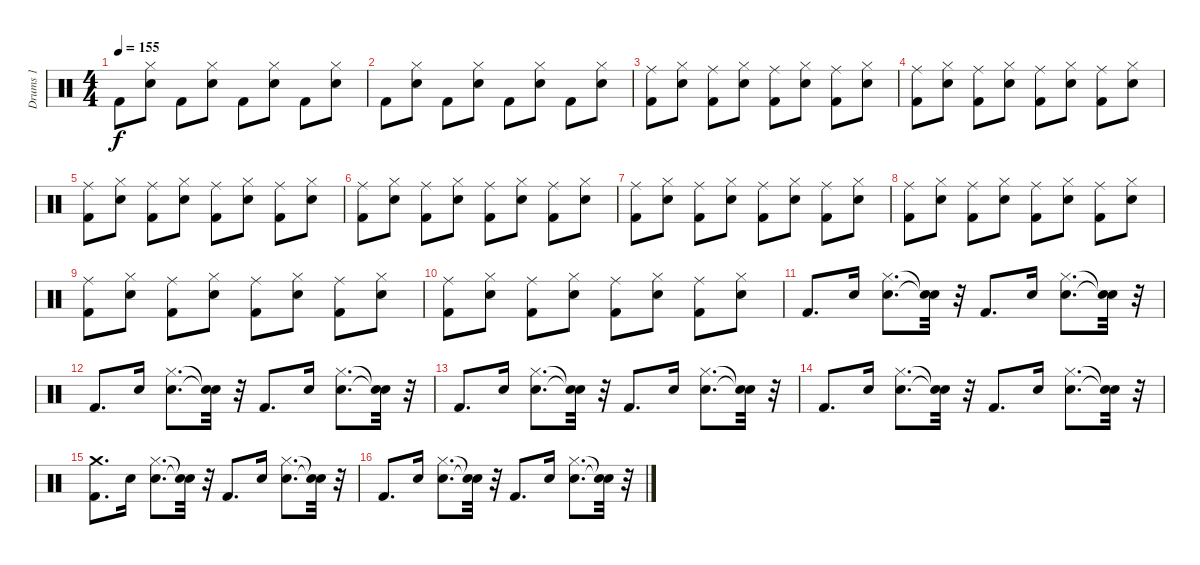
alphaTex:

\track ("Drums 1" "Drums 1") {instrument percussion}
\staff {score}
\articulation defaults
\ts (4 4)
\tempo 155
\clef neutral
\ks c "Kick (hit) 2".8{dy f}
("Snare (hit) 2" "Hi-Hat (closed)").8 "Kick (hit) 2".8 ("Snare (hit) 2" "Hi-Hat (closed)").8 "Kick (hit) 2".8 ("Snare (hit) 2" "Hi-Hat (closed)").8 "Kick (hit) 2".8 ("Snare (hit) 2" "Hi-Hat (closed)").8 |
"Kick (hit) 2".8 ("Snare (hit) 2" "Hi-Hat (closed)").8 "Kick (hit) 2".8 ("Snare (hit) 2" "Hi-Hat (closed)").8 "Kick (hit) 2".8 ("Snare (hit) 2" "Hi-Hat (closed)").8 "Kick (hit) 2".8 ("Snare (hit) 2" "Hi-Hat (closed)").8 |
("Kick (hit) 2" "Ride (middle)").8 ("Snare (hit) 2" "Hi-Hat (closed)").8 ("Kick (hit) 2" "Ride (middle)").8 ("Snare (hit) 2" "Hi-Hat (closed)").8 ("Kick (hit) 2" "Ride (middle)").8 ("Snare (hit) 2" "Hi-Hat (closed)").8 ("Kick (hit) 2" "Ride (middle)").8 ("Snare (hit) 2" "Hi-Hat (closed)").8 |
("Kick (hit) 2" "Ride (middle)").8 ("Snare (hit) 2" "Hi-Hat (closed)").8 ("Kick (hit) 2" "Ride (middle)").8 ("Snare (hit) 2" "Hi-Hat (closed)").8 ("Kick (hit) 2" "Ride (middle)").8 ("Snare (hit) 2" "Hi-Hat (closed)").8 ("Kick (hit) 2" "Ride (middle)").8 ("Snare (hit) 2" "Hi-Hat (closed)").8 |
("Kick (hit) 2" "Ride (middle)").8 ("Snare (hit) 2" "Hi-Hat (closed)").8 ("Kick (hit) 2" "Ride (middle)").8 ("Snare (hit) 2" "Hi-Hat (closed)").8 ("Kick (hit) 2" "Ride (middle)").8 ("Snare (hit) 2" "Hi-Hat (closed)").8 ("Kick (hit) 2" "Ride (middle)").8 ("Snare (hit) 2" "Hi-Hat (closed)").8 |
("Kick (hit) 2" "Ride (middle)").8 ("Snare (hit) 2" "Hi-Hat (closed)").8 ("Kick (hit) 2" "Ride (middle)").8 ("Snare (hit) 2" "Hi-Hat (closed)").8 ("Kick (hit) 2" "Ride (middle)").8 ("Snare (hit) 2" "Hi-Hat (closed)").8 ("Kick (hit) 2" "Ride (middle)").8 ("Snare (hit) 2" "Hi-Hat (closed)").8 |
("Kick (hit) 2" "Ride (middle)").8 ("Snare (hit) 2" "Hi-Hat (closed)").8 ("Kick (hit) 2" "Ride (middle)").8 ("Snare (hit) 2" "Hi-Hat (closed)").8 ("Kick (hit) 2" "Ride (middle)").8 ("Snare (hit) 2" "Hi-Hat (closed)").8 ("Kick (hit) 2" "Ride (middle)").8 ("Snare (hit) 2" "Hi-Hat (closed)").8 |
("Kick (hit) 2" "Ride (middle)").8 ("Snare (hit) 2" "Hi-Hat (closed)").8 ("Kick (hit) 2" "Ride (middle)").8 ("Snare (hit) 2" "Hi-Hat (closed)").8 ("Kick (hit) 2" "Ride (middle)").8 ("Snare (hit) 2" "Hi-Hat (closed)").8 ("Kick (hit) 2" "Ride (middle)").8 ("Snare (hit) 2" "Hi-Hat (closed)").8 |
("Kick (hit) 2" "Ride (middle)").8 ("Snare (hit) 2" "Hi-Hat (closed)").8 ("Kick (hit) 2" "Ride (middle)").8 ("Snare (hit) 2" "Hi-Hat (closed)").8 ("Kick (hit) 2" "Ride (middle)").8 ("Snare (hit) 2" "Hi-Hat (closed)").8 ("Kick (hit) 2" "Ride (middle)").8 ("Snare (hit) 2" "Hi-Hat (closed)").8 |
("Kick (hit) 2" "Ride (middle)").8 ("Snare (hit) 2" "Hi-Hat (closed)").8 ("Kick (hit) 2" "Ride (middle)").8 ("Snare (hit) 2" "Hi-Hat (closed)").8 ("Kick (hit) 2" "Ride (middle)").8 ("Snare (hit) 2" "Hi-Hat (closed)").8 ("Kick (hit) 2" "Ride (middle)").8 ("Snare (hit) 2" "Hi-Hat (closed)").8 |
"Kick (hit) 2".8{d} "Snare (hit) 2".16 ("Snare (hit) 2" "Hi-Hat (closed)").8{d} ("Snare (hit)"{t} "Snare (hit)"{t}).32 r.32 "Kick (hit) 2".8{d} "Snare (hit) 2".16 ("Snare (hit) 2" "Hi-Hat (closed)").8{d} ("Snare (hit)"{t} "Snare (hit)"{t}).32 r.32 |
"Kick (hit) 2".8{d} "Snare (hit) 2".16 ("Snare (hit) 2" "Hi-Hat (closed)").8{d} ("Snare (hit)"{t} "Snare (hit)"{t}).32 r.32 "Kick (hit) 2".8{d} "Snare (hit) 2".16 ("Snare (hit) 2" "Hi-Hat (closed)").8{d} ("Snare (hit)"{t} "Snare (hit)"{t}).32 r.32 |
"Kick (hit) 2".8{d} "Snare (hit) 2".16 ("Snare (hit) 2" "Hi-Hat (closed)").8{d} ("Snare (hit)"{t} "Snare (hit)"{t}).32 r.32 "Kick (hit) 2".8{d} "Snare (hit) 2".16 ("Snare (hit) 2" "Hi-Hat (closed)").8{d} ("Snare (hit)"{t} "Snare (hit)"{t}).32 r.32 |
"Kick (hit) 2".8{d} "Snare (hit) 2".16 ("Snare (hit) 2" "Hi-Hat (closed)").8{d} ("Snare (hit)"{t} "Snare (hit)"{t}).32 r.32 "Kick (hit) 2".8{d} "Snare (hit) 2".16 ("Snare (hit) 2" "Hi-Hat (closed)").8{d} ("Snare (hit)"{t} "Snare (hit)"{t}).32 r.32 |
("Kick (hit) 2" "Crash medium (hit)").8{d} "Snare (hit) 2".16 ("Snare (hit) 2" "Hi-Hat (closed)").8{d} ("Snare (hit)"{t} "Snare (hit)"{t}).32 r.32 "Kick (hit) 2".8{d} "Snare (hit) 2".16 ("Snare (hit) 2" "Hi-Hat (closed)").8{d} ("Snare (hit)"{t} "Snare (hit)"{t}).32 r.32 |
"Kick (hit) 2".8{d} "Snare (hit) 2".16 ("Snare (hit) 2" "Hi-Hat (closed)").8{d} ("Snare (hit)"{t} "Snare (hit)"{t}).32 r.32 "Kick (hit) 2".8{d} "Snare (hit) 2".16 ("Snare (hit) 2" "Hi-Hat (closed)").8{d} ("Snare (hit)"{t} "Snare (hit)"{t}).32 r.32
